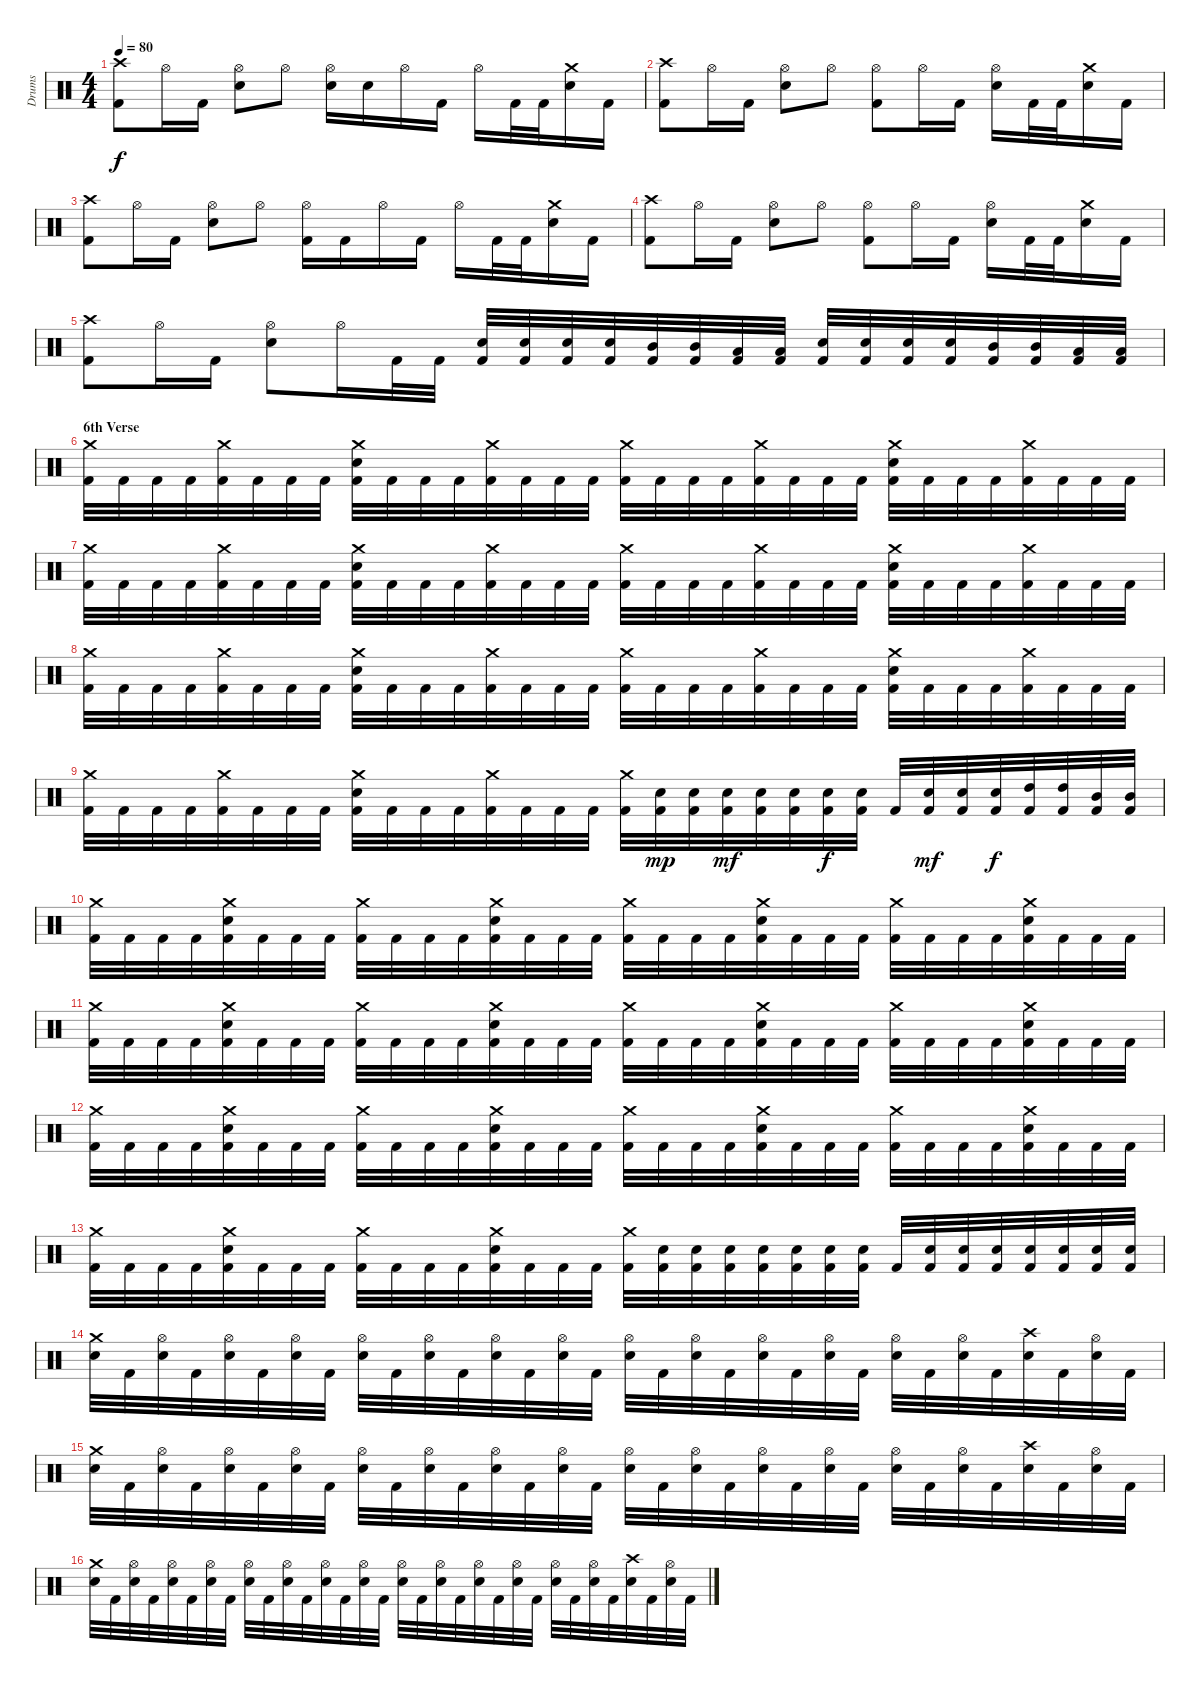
\track ("Drums" "Drums") {instrument percussion}
\staff {score}
\articulation defaults
\ts (4 4)
\tempo 80
\clef neutral
\ks c
("Kick (hit) 2" "Crash high (hit)").8{dy f} "Hi-Hat (open)".16 "Kick (hit) 2".16 ("Electric Snare (hit)" "Hi-Hat (open)").8 "Hi-Hat (open)".8 ("Electric Snare (hit)" "Hi-Hat (open)").16 "Electric Snare (hit)".16 "Hi-Hat (open)".16 "Kick (hit) 2".16 "Hi-Hat (open)".16 "Kick (hit) 2".32 "Kick (hit) 2".32 ("Electric Snare (hit)" "Crash medium (hit)").16 "Kick (hit) 2".16 |
("Kick (hit) 2" "Crash high (hit)").8 "Hi-Hat (open)".16 "Kick (hit) 2".16 ("Electric Snare (hit)" "Hi-Hat (open)").8 "Hi-Hat (open)".8 ("Kick (hit) 2" "Hi-Hat (open)").8 "Hi-Hat (open)".16 "Kick (hit) 2".16 ("Electric Snare (hit)" "Hi-Hat (open)").16 "Kick (hit) 2".32 "Kick (hit) 2".32 ("Electric Snare (hit)" "Crash medium (hit)").16 "Kick (hit) 2".16 |
("Kick (hit) 2" "Crash high (hit)").8 "Hi-Hat (open)".16 "Kick (hit) 2".16 ("Electric Snare (hit)" "Hi-Hat (open)").8 "Hi-Hat (open)".8 ("Kick (hit) 2" "Hi-Hat (open)").16 "Kick (hit) 2".16 "Hi-Hat (open)".16 "Kick (hit) 2".16 "Hi-Hat (open)".16 "Kick (hit) 2".32 "Kick (hit) 2".32 ("Electric Snare (hit)" "Crash medium (hit)").16 "Kick (hit) 2".16 |
("Kick (hit) 2" "Crash high (hit)").8 "Hi-Hat (open)".16 "Kick (hit) 2".16 ("Electric Snare (hit)" "Hi-Hat (open)").8 "Hi-Hat (open)".8 ("Kick (hit) 2" "Hi-Hat (open)").8 "Hi-Hat (open)".16 "Kick (hit) 2".16 ("Electric Snare (hit)" "Hi-Hat (open)").16 "Kick (hit) 2".32 "Kick (hit) 2".32 ("Electric Snare (hit)" "Crash medium (hit)").16 "Kick (hit) 2".16 |
("Kick (hit) 2" "Crash high (hit)").8 "Hi-Hat (open)".16 "Kick (hit) 2".16 ("Electric Snare (hit)" "Hi-Hat (open)").8 "Hi-Hat (open)".16 "Kick (hit) 2".32 "Kick (hit) 2".32 ("Kick (hit) 2" "Electric Snare (hit)").32 ("Kick (hit) 2" "Electric Snare (hit)").32 ("Kick (hit) 2" "Electric Snare (hit)").32 ("Kick (hit) 2" "Electric Snare (hit)").32 ("Kick (hit) 2" "Mid Tom (hit)").32 ("Kick (hit) 2" "Mid Tom (hit)").32 ("Kick (hit) 2" "Low Tom (hit)").32 ("Kick (hit) 2" "Low Tom (hit)").32 ("Kick (hit) 2" "Electric Snare (hit)").32 ("Kick (hit) 2" "Electric Snare (hit)").32 ("Kick (hit) 2" "Electric Snare (hit)").32 ("Kick (hit) 2" "Electric Snare (hit)").32 ("Kick (hit) 2" "Mid Tom (hit)").32 ("Kick (hit) 2" "Mid Tom (hit)").32 ("Kick (hit) 2" "Low Tom (hit)").32 ("Kick (hit) 2" "Low Tom (hit)").32 |
\section ("" "6th Verse")
("Kick (hit) 2" "Crash medium (hit)").32 "Kick (hit) 2".32 "Kick (hit) 2".32 "Kick (hit) 2".32 ("Kick (hit) 2" "Crash medium (hit)").32 "Kick (hit) 2".32 "Kick (hit) 2".32 "Kick (hit) 2".32 ("Kick (hit) 2" "Electric Snare (hit)" "Crash medium (hit)").32 "Kick (hit) 2".32 "Kick (hit) 2".32 "Kick (hit) 2".32 ("Kick (hit) 2" "Crash medium (hit)").32 "Kick (hit) 2".32 "Kick (hit) 2".32 "Kick (hit) 2".32 ("Kick (hit) 2" "Crash medium (hit)").32 "Kick (hit) 2".32 "Kick (hit) 2".32 "Kick (hit) 2".32 ("Kick (hit) 2" "Crash medium (hit)").32 "Kick (hit) 2".32 "Kick (hit) 2".32 "Kick (hit) 2".32 ("Kick (hit) 2" "Electric Snare (hit)" "Crash medium (hit)").32 "Kick (hit) 2".32 "Kick (hit) 2".32 "Kick (hit) 2".32 ("Kick (hit) 2" "Crash medium (hit)").32 "Kick (hit) 2".32 "Kick (hit) 2".32 "Kick (hit) 2".32 |
("Kick (hit) 2" "Crash medium (hit)").32 "Kick (hit) 2".32 "Kick (hit) 2".32 "Kick (hit) 2".32 ("Kick (hit) 2" "Crash medium (hit)").32 "Kick (hit) 2".32 "Kick (hit) 2".32 "Kick (hit) 2".32 ("Kick (hit) 2" "Electric Snare (hit)" "Crash medium (hit)").32 "Kick (hit) 2".32 "Kick (hit) 2".32 "Kick (hit) 2".32 ("Kick (hit) 2" "Crash medium (hit)").32 "Kick (hit) 2".32 "Kick (hit) 2".32 "Kick (hit) 2".32 ("Kick (hit) 2" "Crash medium (hit)").32 "Kick (hit) 2".32 "Kick (hit) 2".32 "Kick (hit) 2".32 ("Kick (hit) 2" "Crash medium (hit)").32 "Kick (hit) 2".32 "Kick (hit) 2".32 "Kick (hit) 2".32 ("Kick (hit) 2" "Electric Snare (hit)" "Crash medium (hit)").32 "Kick (hit) 2".32 "Kick (hit) 2".32 "Kick (hit) 2".32 ("Kick (hit) 2" "Crash medium (hit)").32 "Kick (hit) 2".32 "Kick (hit) 2".32 "Kick (hit) 2".32 |
("Kick (hit) 2" "Crash medium (hit)").32 "Kick (hit) 2".32 "Kick (hit) 2".32 "Kick (hit) 2".32 ("Kick (hit) 2" "Crash medium (hit)").32 "Kick (hit) 2".32 "Kick (hit) 2".32 "Kick (hit) 2".32 ("Kick (hit) 2" "Electric Snare (hit)" "Crash medium (hit)").32 "Kick (hit) 2".32 "Kick (hit) 2".32 "Kick (hit) 2".32 ("Kick (hit) 2" "Crash medium (hit)").32 "Kick (hit) 2".32 "Kick (hit) 2".32 "Kick (hit) 2".32 ("Kick (hit) 2" "Crash medium (hit)").32 "Kick (hit) 2".32 "Kick (hit) 2".32 "Kick (hit) 2".32 ("Kick (hit) 2" "Crash medium (hit)").32 "Kick (hit) 2".32 "Kick (hit) 2".32 "Kick (hit) 2".32 ("Kick (hit) 2" "Electric Snare (hit)" "Crash medium (hit)").32 "Kick (hit) 2".32 "Kick (hit) 2".32 "Kick (hit) 2".32 ("Kick (hit) 2" "Crash medium (hit)").32 "Kick (hit) 2".32 "Kick (hit) 2".32 "Kick (hit) 2".32 |
("Kick (hit) 2" "Crash medium (hit)").32 "Kick (hit) 2".32 "Kick (hit) 2".32 "Kick (hit) 2".32 ("Kick (hit) 2" "Crash medium (hit)").32 "Kick (hit) 2".32 "Kick (hit) 2".32 "Kick (hit) 2".32 ("Kick (hit) 2" "Electric Snare (hit)" "Crash medium (hit)").32 "Kick (hit) 2".32 "Kick (hit) 2".32 "Kick (hit) 2".32 ("Kick (hit) 2" "Crash medium (hit)").32 "Kick (hit) 2".32 "Kick (hit) 2".32 "Kick (hit) 2".32 ("Kick (hit) 2" "Crash medium (hit)").32 ("Kick (hit) 2" "Electric Snare (hit)").32{dy mp} ("Kick (hit) 2" "Electric Snare (hit)").32 ("Kick (hit) 2" "Electric Snare (hit)").32{dy mf} ("Kick (hit) 2" "Electric Snare (hit)").32 ("Kick (hit) 2" "Electric Snare (hit)").32 ("Kick (hit) 2" "Electric Snare (hit)").32{dy f} ("Kick (hit) 2" "Electric Snare (hit)").32 "Kick (hit) 2".32 ("Kick (hit) 2" "Electric Snare (hit)").32{dy mf} ("Kick (hit) 2" "Electric Snare (hit)").32 ("Kick (hit) 2" "Electric Snare (hit)").32{dy f} ("Kick (hit) 2" "High Tom (hit)").32 ("Kick (hit) 2" "High Tom (hit)").32 ("Kick (hit) 2" "Mid Tom (hit)").32 ("Kick (hit) 2" "Mid Tom (hit)").32 |
("Kick (hit) 2" "Crash medium (hit)").32 "Kick (hit) 2".32 "Kick (hit) 2".32 "Kick (hit) 2".32 ("Kick (hit) 2" "Electric Snare (hit)" "Crash medium (hit)").32 "Kick (hit) 2".32 "Kick (hit) 2".32 "Kick (hit) 2".32 ("Kick (hit) 2" "Crash medium (hit)").32 "Kick (hit) 2".32 "Kick (hit) 2".32 "Kick (hit) 2".32 ("Kick (hit) 2" "Electric Snare (hit)" "Crash medium (hit)").32 "Kick (hit) 2".32 "Kick (hit) 2".32 "Kick (hit) 2".32 ("Kick (hit) 2" "Crash medium (hit)").32 "Kick (hit) 2".32 "Kick (hit) 2".32 "Kick (hit) 2".32 ("Kick (hit) 2" "Electric Snare (hit)" "Crash medium (hit)").32 "Kick (hit) 2".32 "Kick (hit) 2".32 "Kick (hit) 2".32 ("Kick (hit) 2" "Crash medium (hit)").32 "Kick (hit) 2".32 "Kick (hit) 2".32 "Kick (hit) 2".32 ("Kick (hit) 2" "Electric Snare (hit)" "Crash medium (hit)").32 "Kick (hit) 2".32 "Kick (hit) 2".32 "Kick (hit) 2".32 |
("Kick (hit) 2" "Crash medium (hit)").32 "Kick (hit) 2".32 "Kick (hit) 2".32 "Kick (hit) 2".32 ("Kick (hit) 2" "Electric Snare (hit)" "Crash medium (hit)").32 "Kick (hit) 2".32 "Kick (hit) 2".32 "Kick (hit) 2".32 ("Kick (hit) 2" "Crash medium (hit)").32 "Kick (hit) 2".32 "Kick (hit) 2".32 "Kick (hit) 2".32 ("Kick (hit) 2" "Electric Snare (hit)" "Crash medium (hit)").32 "Kick (hit) 2".32 "Kick (hit) 2".32 "Kick (hit) 2".32 ("Kick (hit) 2" "Crash medium (hit)").32 "Kick (hit) 2".32 "Kick (hit) 2".32 "Kick (hit) 2".32 ("Kick (hit) 2" "Electric Snare (hit)" "Crash medium (hit)").32 "Kick (hit) 2".32 "Kick (hit) 2".32 "Kick (hit) 2".32 ("Kick (hit) 2" "Crash medium (hit)").32 "Kick (hit) 2".32 "Kick (hit) 2".32 "Kick (hit) 2".32 ("Kick (hit) 2" "Electric Snare (hit)" "Crash medium (hit)").32 "Kick (hit) 2".32 "Kick (hit) 2".32 "Kick (hit) 2".32 |
("Kick (hit) 2" "Crash medium (hit)").32 "Kick (hit) 2".32 "Kick (hit) 2".32 "Kick (hit) 2".32 ("Kick (hit) 2" "Electric Snare (hit)" "Crash medium (hit)").32 "Kick (hit) 2".32 "Kick (hit) 2".32 "Kick (hit) 2".32 ("Kick (hit) 2" "Crash medium (hit)").32 "Kick (hit) 2".32 "Kick (hit) 2".32 "Kick (hit) 2".32 ("Kick (hit) 2" "Electric Snare (hit)" "Crash medium (hit)").32 "Kick (hit) 2".32 "Kick (hit) 2".32 "Kick (hit) 2".32 ("Kick (hit) 2" "Crash medium (hit)").32 "Kick (hit) 2".32 "Kick (hit) 2".32 "Kick (hit) 2".32 ("Kick (hit) 2" "Electric Snare (hit)" "Crash medium (hit)").32 "Kick (hit) 2".32 "Kick (hit) 2".32 "Kick (hit) 2".32 ("Kick (hit) 2" "Crash medium (hit)").32 "Kick (hit) 2".32 "Kick (hit) 2".32 "Kick (hit) 2".32 ("Kick (hit) 2" "Electric Snare (hit)" "Crash medium (hit)").32 "Kick (hit) 2".32 "Kick (hit) 2".32 "Kick (hit) 2".32 |
("Kick (hit) 2" "Crash medium (hit)").32 "Kick (hit) 2".32 "Kick (hit) 2".32 "Kick (hit) 2".32 ("Kick (hit) 2" "Electric Snare (hit)" "Crash medium (hit)").32 "Kick (hit) 2".32 "Kick (hit) 2".32 "Kick (hit) 2".32 ("Kick (hit) 2" "Crash medium (hit)").32 "Kick (hit) 2".32 "Kick (hit) 2".32 "Kick (hit) 2".32 ("Kick (hit) 2" "Electric Snare (hit)" "Crash medium (hit)").32 "Kick (hit) 2".32 "Kick (hit) 2".32 "Kick (hit) 2".32 ("Kick (hit) 2" "Crash medium (hit)").32 ("Kick (hit) 2" "Electric Snare (hit)").32 ("Kick (hit) 2" "Electric Snare (hit)").32 ("Kick (hit) 2" "Electric Snare (hit)").32 ("Kick (hit) 2" "Electric Snare (hit)").32 ("Kick (hit) 2" "Electric Snare (hit)").32 ("Kick (hit) 2" "Electric Snare (hit)").32 ("Kick (hit) 2" "Electric Snare (hit)").32 "Kick (hit) 2".32 ("Kick (hit) 2" "Electric Snare (hit)").32 ("Kick (hit) 2" "Electric Snare (hit)").32 ("Kick (hit) 2" "Electric Snare (hit)").32 ("Kick (hit) 2" "Electric Snare (hit)").32 ("Kick (hit) 2" "Electric Snare (hit)").32 ("Kick (hit) 2" "Electric Snare (hit)").32 ("Kick (hit) 2" "Electric Snare (hit)").32 |
("Electric Snare (hit)" "Crash medium (hit)").32 "Kick (hit) 2".32 ("Electric Snare (hit)" "Hi-Hat (open)").32 "Kick (hit) 2".32 ("Electric Snare (hit)" "Hi-Hat (open)").32 "Kick (hit) 2".32 ("Electric Snare (hit)" "Hi-Hat (open)").32 "Kick (hit) 2".32 ("Electric Snare (hit)" "Hi-Hat (open)").32 "Kick (hit) 2".32 ("Electric Snare (hit)" "Hi-Hat (open)").32 "Kick (hit) 2".32 ("Electric Snare (hit)" "Hi-Hat (open)").32 "Kick (hit) 2".32 ("Electric Snare (hit)" "Hi-Hat (open)").32 "Kick (hit) 2".32 ("Electric Snare (hit)" "Hi-Hat (open)").32 "Kick (hit) 2".32 ("Electric Snare (hit)" "Hi-Hat (open)").32 "Kick (hit) 2".32 ("Electric Snare (hit)" "Hi-Hat (open)").32 "Kick (hit) 2".32 ("Electric Snare (hit)" "Hi-Hat (open)").32 "Kick (hit) 2".32 ("Electric Snare (hit)" "Hi-Hat (open)").32 "Kick (hit) 2".32 ("Electric Snare (hit)" "Hi-Hat (open)").32 "Kick (hit) 2".32 ("Electric Snare (hit)" "Crash high (hit)").32 "Kick (hit) 2".32 ("Electric Snare (hit)" "Hi-Hat (open)").32 "Kick (hit) 2".32 |
("Electric Snare (hit)" "Crash medium (hit)").32 "Kick (hit) 2".32 ("Electric Snare (hit)" "Hi-Hat (open)").32 "Kick (hit) 2".32 ("Electric Snare (hit)" "Hi-Hat (open)").32 "Kick (hit) 2".32 ("Electric Snare (hit)" "Hi-Hat (open)").32 "Kick (hit) 2".32 ("Electric Snare (hit)" "Hi-Hat (open)").32 "Kick (hit) 2".32 ("Electric Snare (hit)" "Hi-Hat (open)").32 "Kick (hit) 2".32 ("Electric Snare (hit)" "Hi-Hat (open)").32 "Kick (hit) 2".32 ("Electric Snare (hit)" "Hi-Hat (open)").32 "Kick (hit) 2".32 ("Electric Snare (hit)" "Hi-Hat (open)").32 "Kick (hit) 2".32 ("Electric Snare (hit)" "Hi-Hat (open)").32 "Kick (hit) 2".32 ("Electric Snare (hit)" "Hi-Hat (open)").32 "Kick (hit) 2".32 ("Electric Snare (hit)" "Hi-Hat (open)").32 "Kick (hit) 2".32 ("Electric Snare (hit)" "Hi-Hat (open)").32 "Kick (hit) 2".32 ("Electric Snare (hit)" "Hi-Hat (open)").32 "Kick (hit) 2".32 ("Electric Snare (hit)" "Crash high (hit)").32 "Kick (hit) 2".32 ("Electric Snare (hit)" "Hi-Hat (open)").32 "Kick (hit) 2".32 |
("Electric Snare (hit)" "Crash medium (hit)").32 "Kick (hit) 2".32 ("Electric Snare (hit)" "Hi-Hat (open)").32 "Kick (hit) 2".32 ("Electric Snare (hit)" "Hi-Hat (open)").32 "Kick (hit) 2".32 ("Electric Snare (hit)" "Hi-Hat (open)").32 "Kick (hit) 2".32 ("Electric Snare (hit)" "Hi-Hat (open)").32 "Kick (hit) 2".32 ("Electric Snare (hit)" "Hi-Hat (open)").32 "Kick (hit) 2".32 ("Electric Snare (hit)" "Hi-Hat (open)").32 "Kick (hit) 2".32 ("Electric Snare (hit)" "Hi-Hat (open)").32 "Kick (hit) 2".32 ("Electric Snare (hit)" "Hi-Hat (open)").32 "Kick (hit) 2".32 ("Electric Snare (hit)" "Hi-Hat (open)").32 "Kick (hit) 2".32 ("Electric Snare (hit)" "Hi-Hat (open)").32 "Kick (hit) 2".32 ("Electric Snare (hit)" "Hi-Hat (open)").32 "Kick (hit) 2".32 ("Electric Snare (hit)" "Hi-Hat (open)").32 "Kick (hit) 2".32 ("Electric Snare (hit)" "Hi-Hat (open)").32 "Kick (hit) 2".32 ("Electric Snare (hit)" "Crash high (hit)").32 "Kick (hit) 2".32 ("Electric Snare (hit)" "Hi-Hat (open)").32 "Kick (hit) 2".32
